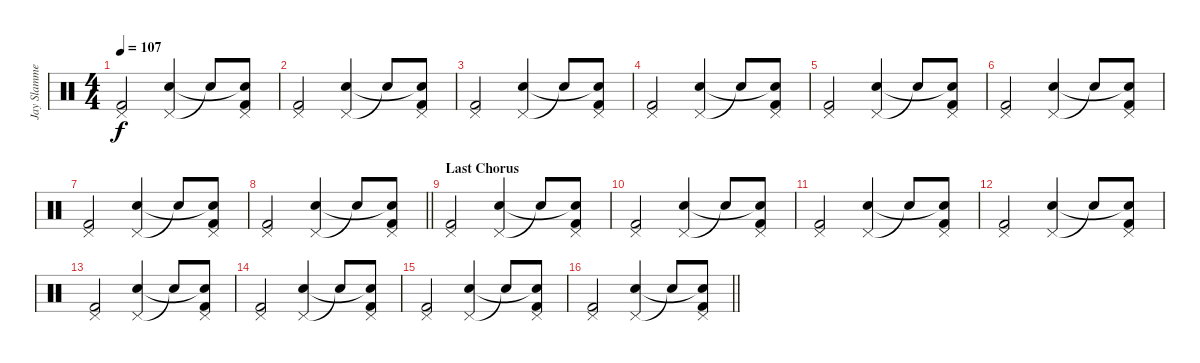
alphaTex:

\track ("Jay Slammer" "Jay Slamme") {instrument percussion}
\staff {score}
\articulation defaults
\ts (4 4)
\tempo 107
\clef neutral
\ks c
("Pedal Hi-Hat (hit)" "Kick (hit) 2").2{dy f} ("Pedal Hi-Hat (hit)" "Electric Snare (hit)").4 "Snare (hit)"{t}.8 ("Pedal Hi-Hat (hit)" "Snare (hit)"{t} "Kick (hit) 2").8 |
("Pedal Hi-Hat (hit)" "Kick (hit) 2").2 ("Pedal Hi-Hat (hit)" "Electric Snare (hit)").4 "Snare (hit)"{t}.8 ("Pedal Hi-Hat (hit)" "Snare (hit)"{t} "Kick (hit) 2").8 |
("Pedal Hi-Hat (hit)" "Kick (hit) 2").2 ("Pedal Hi-Hat (hit)" "Electric Snare (hit)").4 "Snare (hit)"{t}.8 ("Pedal Hi-Hat (hit)" "Snare (hit)"{t} "Kick (hit) 2").8 |
("Pedal Hi-Hat (hit)" "Kick (hit) 2").2 ("Pedal Hi-Hat (hit)" "Electric Snare (hit)").4 "Snare (hit)"{t}.8 ("Pedal Hi-Hat (hit)" "Snare (hit)"{t} "Kick (hit) 2").8 |
("Pedal Hi-Hat (hit)" "Kick (hit) 2").2 ("Pedal Hi-Hat (hit)" "Electric Snare (hit)").4 "Snare (hit)"{t}.8 ("Pedal Hi-Hat (hit)" "Snare (hit)"{t} "Kick (hit) 2").8 |
("Pedal Hi-Hat (hit)" "Kick (hit) 2").2 ("Pedal Hi-Hat (hit)" "Electric Snare (hit)").4 "Snare (hit)"{t}.8 ("Pedal Hi-Hat (hit)" "Snare (hit)"{t} "Kick (hit) 2").8 |
("Pedal Hi-Hat (hit)" "Kick (hit) 2").2 ("Pedal Hi-Hat (hit)" "Electric Snare (hit)").4 "Snare (hit)"{t}.8 ("Pedal Hi-Hat (hit)" "Snare (hit)"{t} "Kick (hit) 2").8 |
\barLineRight lightlight
("Pedal Hi-Hat (hit)" "Kick (hit) 2").2 ("Pedal Hi-Hat (hit)" "Electric Snare (hit)").4 "Snare (hit)"{t}.8 ("Pedal Hi-Hat (hit)" "Snare (hit)"{t} "Kick (hit) 2").8 |
\section ("" "Last Chorus")
("Pedal Hi-Hat (hit)" "Kick (hit) 2").2 ("Pedal Hi-Hat (hit)" "Electric Snare (hit)").4 "Snare (hit)"{t}.8 ("Pedal Hi-Hat (hit)" "Snare (hit)"{t} "Kick (hit) 2").8 |
("Pedal Hi-Hat (hit)" "Kick (hit) 2").2 ("Pedal Hi-Hat (hit)" "Electric Snare (hit)").4 "Snare (hit)"{t}.8 ("Pedal Hi-Hat (hit)" "Snare (hit)"{t} "Kick (hit) 2").8 |
("Pedal Hi-Hat (hit)" "Kick (hit) 2").2 ("Pedal Hi-Hat (hit)" "Electric Snare (hit)").4 "Snare (hit)"{t}.8 ("Pedal Hi-Hat (hit)" "Snare (hit)"{t} "Kick (hit) 2").8 |
("Pedal Hi-Hat (hit)" "Kick (hit) 2").2 ("Pedal Hi-Hat (hit)" "Electric Snare (hit)").4 "Snare (hit)"{t}.8 ("Pedal Hi-Hat (hit)" "Snare (hit)"{t} "Kick (hit) 2").8 |
("Pedal Hi-Hat (hit)" "Kick (hit) 2").2 ("Pedal Hi-Hat (hit)" "Electric Snare (hit)").4 "Snare (hit)"{t}.8 ("Pedal Hi-Hat (hit)" "Snare (hit)"{t} "Kick (hit) 2").8 |
("Pedal Hi-Hat (hit)" "Kick (hit) 2").2 ("Pedal Hi-Hat (hit)" "Electric Snare (hit)").4 "Snare (hit)"{t}.8 ("Pedal Hi-Hat (hit)" "Snare (hit)"{t} "Kick (hit) 2").8 |
("Pedal Hi-Hat (hit)" "Kick (hit) 2").2 ("Pedal Hi-Hat (hit)" "Electric Snare (hit)").4 "Snare (hit)"{t}.8 ("Pedal Hi-Hat (hit)" "Snare (hit)"{t} "Kick (hit) 2").8 |
\barLineRight lightlight
("Pedal Hi-Hat (hit)" "Kick (hit) 2").2 ("Pedal Hi-Hat (hit)" "Electric Snare (hit)").4 "Snare (hit)"{t}.8 ("Pedal Hi-Hat (hit)" "Snare (hit)"{t} "Kick (hit) 2").8
